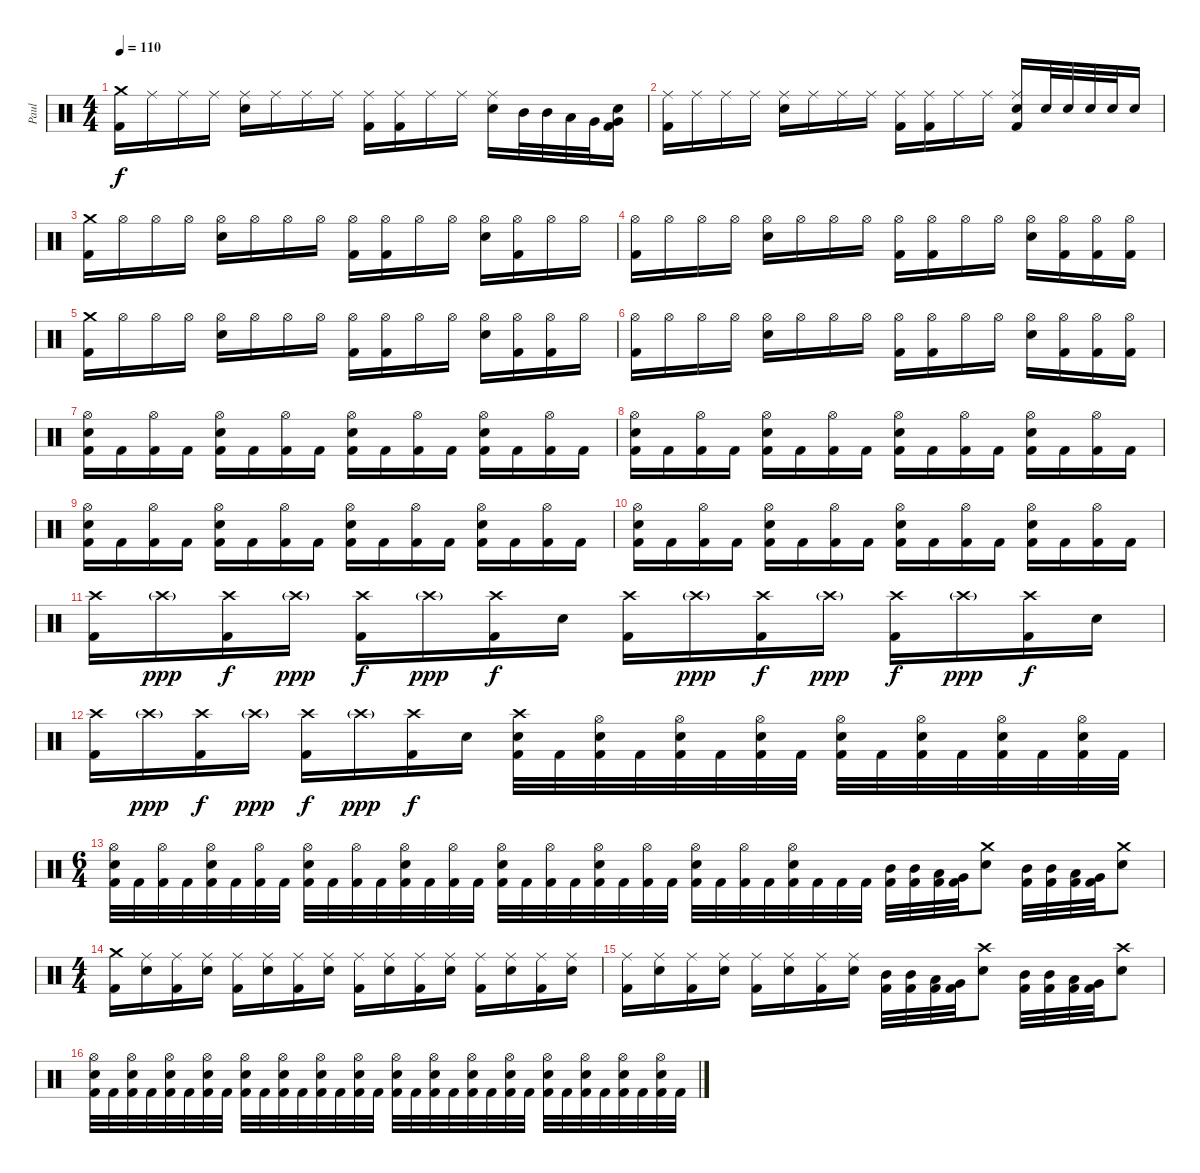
\track ("Paul" "Paul") {solo instrument percussion}
\staff {score}
\articulation defaults
\ts (4 4)
\tempo 110
\clef neutral
\ks c
("Crash medium (hit)" "Kick (hit) 2").16{dy f} "Ride (middle)".16 "Ride (middle)".16 "Ride (middle)".16 ("Ride (middle)" "Electric Snare (hit)").16 "Ride (middle)".16 "Ride (middle)".16 "Ride (middle)".16 ("Ride (middle)" "Kick (hit) 2").16 ("Ride (middle)" "Kick (hit) 2").16 "Ride (middle)".16 "Ride (middle)".16 ("Ride (middle)" "Electric Snare (hit)").16 "Mid Tom (hit)".32 "Mid Tom (hit)".32 "Low Tom (hit)".32 "Very Low Tom (hit)".32 ("Very Low Tom (hit)" "Electric Snare (hit)" "Kick (hit) 2").16 |
("Ride (middle)" "Kick (hit) 2").16 "Ride (middle)".16 "Ride (middle)".16 "Ride (middle)".16 ("Ride (middle)" "Electric Snare (hit)").16 "Ride (middle)".16 "Ride (middle)".16 "Ride (middle)".16 ("Ride (middle)" "Kick (hit) 2").16 ("Ride (middle)" "Kick (hit) 2").16 "Ride (middle)".16 "Ride (middle)".16 ("Ride (middle)" "Electric Snare (hit)" "Kick (hit) 2").16 "Electric Snare (hit)".32 "Electric Snare (hit)".32 "Electric Snare (hit)".32 "Electric Snare (hit)".32 "Electric Snare (hit)".16 |
("Crash medium (hit)" "Kick (hit) 2").16 "Hi-Hat (open)".16 "Hi-Hat (open)".16 "Hi-Hat (open)".16 ("Hi-Hat (open)" "Electric Snare (hit)").16 "Hi-Hat (open)".16 "Hi-Hat (open)".16 "Hi-Hat (open)".16 ("Hi-Hat (open)" "Kick (hit) 2").16 ("Hi-Hat (open)" "Kick (hit) 2").16 "Hi-Hat (open)".16 "Hi-Hat (open)".16 ("Hi-Hat (open)" "Electric Snare (hit)").16 ("Hi-Hat (open)" "Kick (hit) 2").16 "Hi-Hat (open)".16 "Hi-Hat (open)".16 |
("Hi-Hat (open)" "Kick (hit) 2").16 "Hi-Hat (open)".16 "Hi-Hat (open)".16 "Hi-Hat (open)".16 ("Hi-Hat (open)" "Electric Snare (hit)").16 "Hi-Hat (open)".16 "Hi-Hat (open)".16 "Hi-Hat (open)".16 ("Hi-Hat (open)" "Kick (hit) 2").16 ("Hi-Hat (open)" "Kick (hit) 2").16 "Hi-Hat (open)".16 "Hi-Hat (open)".16 ("Hi-Hat (open)" "Electric Snare (hit)").16 ("Hi-Hat (open)" "Kick (hit) 2").16 ("Hi-Hat (open)" "Kick (hit) 2").16 ("Hi-Hat (open)" "Kick (hit) 2").16 |
("Crash medium (hit)" "Kick (hit) 2").16 "Hi-Hat (open)".16 "Hi-Hat (open)".16 "Hi-Hat (open)".16 ("Hi-Hat (open)" "Electric Snare (hit)").16 "Hi-Hat (open)".16 "Hi-Hat (open)".16 "Hi-Hat (open)".16 ("Hi-Hat (open)" "Kick (hit) 2").16 ("Hi-Hat (open)" "Kick (hit) 2").16 "Hi-Hat (open)".16 "Hi-Hat (open)".16 ("Hi-Hat (open)" "Electric Snare (hit)").16 ("Hi-Hat (open)" "Kick (hit) 2").16 ("Hi-Hat (open)" "Kick (hit) 2").16 "Hi-Hat (open)".16 |
("Hi-Hat (open)" "Kick (hit) 2").16 "Hi-Hat (open)".16 "Hi-Hat (open)".16 "Hi-Hat (open)".16 ("Hi-Hat (open)" "Electric Snare (hit)").16 "Hi-Hat (open)".16 "Hi-Hat (open)".16 "Hi-Hat (open)".16 ("Hi-Hat (open)" "Kick (hit) 2").16 ("Hi-Hat (open)" "Kick (hit) 2").16 "Hi-Hat (open)".16 "Hi-Hat (open)".16 ("Hi-Hat (open)" "Electric Snare (hit)").16 ("Hi-Hat (open)" "Kick (hit) 2").16 ("Hi-Hat (open)" "Kick (hit) 2").16 ("Hi-Hat (open)" "Kick (hit) 2").16 |
("Hi-Hat (open)" "Electric Snare (hit)" "Kick (hit) 2").16 "Kick (hit) 2".16 ("Hi-Hat (open)" "Kick (hit) 2").16 "Kick (hit) 2".16 ("Hi-Hat (open)" "Electric Snare (hit)" "Kick (hit) 2").16 "Kick (hit) 2".16 ("Hi-Hat (open)" "Kick (hit) 2").16 "Kick (hit) 2".16 ("Hi-Hat (open)" "Electric Snare (hit)" "Kick (hit) 2").16 "Kick (hit) 2".16 ("Hi-Hat (open)" "Kick (hit) 2").16 "Kick (hit) 2".16 ("Hi-Hat (open)" "Electric Snare (hit)" "Kick (hit) 2").16 "Kick (hit) 2".16 ("Hi-Hat (open)" "Kick (hit) 2").16 "Kick (hit) 2".16 |
("Hi-Hat (open)" "Electric Snare (hit)" "Kick (hit) 2").16 "Kick (hit) 2".16 ("Hi-Hat (open)" "Kick (hit) 2").16 "Kick (hit) 2".16 ("Hi-Hat (open)" "Electric Snare (hit)" "Kick (hit) 2").16 "Kick (hit) 2".16 ("Hi-Hat (open)" "Kick (hit) 2").16 "Kick (hit) 2".16 ("Hi-Hat (open)" "Electric Snare (hit)" "Kick (hit) 2").16 "Kick (hit) 2".16 ("Hi-Hat (open)" "Kick (hit) 2").16 "Kick (hit) 2".16 ("Hi-Hat (open)" "Electric Snare (hit)" "Kick (hit) 2").16 "Kick (hit) 2".16 ("Hi-Hat (open)" "Kick (hit) 2").16 "Kick (hit) 2".16 |
("Hi-Hat (open)" "Electric Snare (hit)" "Kick (hit) 2").16 "Kick (hit) 2".16 ("Hi-Hat (open)" "Kick (hit) 2").16 "Kick (hit) 2".16 ("Hi-Hat (open)" "Electric Snare (hit)" "Kick (hit) 2").16 "Kick (hit) 2".16 ("Hi-Hat (open)" "Kick (hit) 2").16 "Kick (hit) 2".16 ("Hi-Hat (open)" "Electric Snare (hit)" "Kick (hit) 2").16 "Kick (hit) 2".16 ("Hi-Hat (open)" "Kick (hit) 2").16 "Kick (hit) 2".16 ("Hi-Hat (open)" "Electric Snare (hit)" "Kick (hit) 2").16 "Kick (hit) 2".16 ("Hi-Hat (open)" "Kick (hit) 2").16 "Kick (hit) 2".16 |
("Hi-Hat (open)" "Electric Snare (hit)" "Kick (hit) 2").16 "Kick (hit) 2".16 ("Hi-Hat (open)" "Kick (hit) 2").16 "Kick (hit) 2".16 ("Hi-Hat (open)" "Electric Snare (hit)" "Kick (hit) 2").16 "Kick (hit) 2".16 ("Hi-Hat (open)" "Kick (hit) 2").16 "Kick (hit) 2".16 ("Hi-Hat (open)" "Electric Snare (hit)" "Kick (hit) 2").16 "Kick (hit) 2".16 ("Hi-Hat (open)" "Kick (hit) 2").16 "Kick (hit) 2".16 ("Hi-Hat (open)" "Electric Snare (hit)" "Kick (hit) 2").16 "Kick (hit) 2".16 ("Hi-Hat (open)" "Kick (hit) 2").16 "Kick (hit) 2".16 |
("Crash high (hit)" "Kick (hit) 2").16 "Crash high (hit)"{g}.16{dy ppp} ("Crash high (hit)" "Kick (hit) 2").16{dy f} "Crash high (hit)"{g}.16{dy ppp} ("Crash high (hit)" "Kick (hit) 2").16{dy f} "Crash high (hit)"{g}.16{dy ppp} ("Crash high (hit)" "Kick (hit) 2").16{dy f} "Electric Snare (hit)".16 ("Crash high (hit)" "Kick (hit) 2").16 "Crash high (hit)"{g}.16{dy ppp} ("Crash high (hit)" "Kick (hit) 2").16{dy f} "Crash high (hit)"{g}.16{dy ppp} ("Crash high (hit)" "Kick (hit) 2").16{dy f} "Crash high (hit)"{g}.16{dy ppp} ("Crash high (hit)" "Kick (hit) 2").16{dy f} "Electric Snare (hit)".16 |
("Crash high (hit)" "Kick (hit) 2").16 "Crash high (hit)"{g}.16{dy ppp} ("Crash high (hit)" "Kick (hit) 2").16{dy f} "Crash high (hit)"{g}.16{dy ppp} ("Crash high (hit)" "Kick (hit) 2").16{dy f} "Crash high (hit)"{g}.16{dy ppp} ("Crash high (hit)" "Kick (hit) 2").16{dy f} "Electric Snare (hit)".16 ("Crash high (hit)" "Electric Snare (hit)" "Kick (hit) 2").32 "Kick (hit) 2".32 ("Hi-Hat (open)" "Electric Snare (hit)" "Kick (hit) 2").32 "Kick (hit) 2".32 ("Hi-Hat (open)" "Electric Snare (hit)" "Kick (hit) 2").32 "Kick (hit) 2".32 ("Hi-Hat (open)" "Electric Snare (hit)" "Kick (hit) 2").32 "Kick (hit) 2".32 ("Hi-Hat (open)" "Electric Snare (hit)" "Kick (hit) 2").32 "Kick (hit) 2".32 ("Hi-Hat (open)" "Electric Snare (hit)" "Kick (hit) 2").32 "Kick (hit) 2".32 ("Hi-Hat (open)" "Electric Snare (hit)" "Kick (hit) 2").32 "Kick (hit) 2".32 ("Hi-Hat (open)" "Electric Snare (hit)" "Kick (hit) 2").32 "Kick (hit) 2".32 |
\ts (6 4)
("Hi-Hat (open)" "Electric Snare (hit)" "Kick (hit) 2").32 "Kick (hit) 2".32 ("Hi-Hat (open)" "Kick (hit) 2").32 "Kick (hit) 2".32 ("Hi-Hat (open)" "Electric Snare (hit)" "Kick (hit) 2").32 "Kick (hit) 2".32 ("Hi-Hat (open)" "Kick (hit) 2").32 "Kick (hit) 2".32 ("Hi-Hat (open)" "Electric Snare (hit)" "Kick (hit) 2").32 "Kick (hit) 2".32 ("Hi-Hat (open)" "Kick (hit) 2").32 "Kick (hit) 2".32 ("Hi-Hat (open)" "Electric Snare (hit)" "Kick (hit) 2").32 "Kick (hit) 2".32 ("Hi-Hat (open)" "Kick (hit) 2").32 "Kick (hit) 2".32 ("Hi-Hat (open)" "Electric Snare (hit)" "Kick (hit) 2").32 "Kick (hit) 2".32 ("Hi-Hat (open)" "Kick (hit) 2").32 "Kick (hit) 2".32 ("Hi-Hat (open)" "Electric Snare (hit)" "Kick (hit) 2").32 "Kick (hit) 2".32 ("Hi-Hat (open)" "Kick (hit) 2").32 "Kick (hit) 2".32 ("Hi-Hat (open)" "Electric Snare (hit)" "Kick (hit) 2").32 "Kick (hit) 2".32 ("Hi-Hat (open)" "Kick (hit) 2").32 "Kick (hit) 2".32 ("Hi-Hat (open)" "Electric Snare (hit)" "Kick (hit) 2").32 "Kick (hit) 2".32 "Kick (hit) 2".32 "Kick (hit) 2".32 ("Mid Tom (hit)" "Kick (hit) 2").32 ("Mid Tom (hit)" "Kick (hit) 2").32 ("Low Tom (hit)" "Kick (hit) 2").32 ("Very Low Tom (hit)" "Kick (hit) 2").32 ("Crash medium (hit)" "Electric Snare (hit)").8 ("Mid Tom (hit)" "Kick (hit) 2").32 ("Mid Tom (hit)" "Kick (hit) 2").32 ("Low Tom (hit)" "Kick (hit) 2").32 ("Very Low Tom (hit)" "Kick (hit) 2").32 ("Crash medium (hit)" "Electric Snare (hit)").8 |
\ts (4 4)
("Crash medium (hit)" "Kick (hit) 2").16 ("Ride (middle)" "Electric Snare (hit)").16 ("Ride (middle)" "Kick (hit) 2").16 ("Ride (middle)" "Electric Snare (hit)").16 ("Ride (middle)" "Kick (hit) 2").16 ("Ride (middle)" "Electric Snare (hit)").16 ("Ride (middle)" "Kick (hit) 2").16 ("Ride (middle)" "Electric Snare (hit)").16 ("Ride (middle)" "Kick (hit) 2").16 ("Ride (middle)" "Electric Snare (hit)").16 ("Ride (middle)" "Kick (hit) 2").16 ("Ride (middle)" "Electric Snare (hit)").16 ("Ride (middle)" "Kick (hit) 2").16 ("Ride (middle)" "Electric Snare (hit)").16 ("Ride (middle)" "Kick (hit) 2").16 ("Ride (middle)" "Electric Snare (hit)").16 |
("Ride (middle)" "Kick (hit) 2").16 ("Ride (middle)" "Electric Snare (hit)").16 ("Ride (middle)" "Kick (hit) 2").16 ("Ride (middle)" "Electric Snare (hit)").16 ("Ride (middle)" "Kick (hit) 2").16 ("Ride (middle)" "Electric Snare (hit)").16 ("Ride (middle)" "Kick (hit) 2").16 ("Ride (middle)" "Electric Snare (hit)").16 ("Mid Tom (hit)" "Kick (hit) 2").32 ("Mid Tom (hit)" "Kick (hit) 2").32 ("Low Tom (hit)" "Kick (hit) 2").32 ("Very Low Tom (hit)" "Kick (hit) 2").32 ("Crash high (hit)" "Electric Snare (hit)").8 ("Mid Tom (hit)" "Kick (hit) 2").32 ("Mid Tom (hit)" "Kick (hit) 2").32 ("Low Tom (hit)" "Kick (hit) 2").32 ("Very Low Tom (hit)" "Kick (hit) 2").32 ("Crash high (hit)" "Electric Snare (hit)").8 |
("Hi-Hat (open)" "Electric Snare (hit)" "Kick (hit) 2").32 "Kick (hit) 2".32 ("Hi-Hat (open)" "Electric Snare (hit)" "Kick (hit) 2").32 "Kick (hit) 2".32 ("Hi-Hat (open)" "Electric Snare (hit)" "Kick (hit) 2").32 "Kick (hit) 2".32 ("Hi-Hat (open)" "Electric Snare (hit)" "Kick (hit) 2").32 "Kick (hit) 2".32 ("Hi-Hat (open)" "Electric Snare (hit)" "Kick (hit) 2").32 "Kick (hit) 2".32 ("Hi-Hat (open)" "Electric Snare (hit)" "Kick (hit) 2").32 "Kick (hit) 2".32 ("Hi-Hat (open)" "Electric Snare (hit)" "Kick (hit) 2").32 "Kick (hit) 2".32 ("Hi-Hat (open)" "Electric Snare (hit)" "Kick (hit) 2").32 "Kick (hit) 2".32 ("Hi-Hat (open)" "Electric Snare (hit)" "Kick (hit) 2").32 "Kick (hit) 2".32 ("Hi-Hat (open)" "Electric Snare (hit)" "Kick (hit) 2").32 "Kick (hit) 2".32 ("Hi-Hat (open)" "Electric Snare (hit)" "Kick (hit) 2").32 "Kick (hit) 2".32 ("Hi-Hat (open)" "Electric Snare (hit)" "Kick (hit) 2").32 "Kick (hit) 2".32 ("Hi-Hat (open)" "Electric Snare (hit)" "Kick (hit) 2").32 "Kick (hit) 2".32 ("Hi-Hat (open)" "Electric Snare (hit)" "Kick (hit) 2").32 "Kick (hit) 2".32 ("Hi-Hat (open)" "Electric Snare (hit)" "Kick (hit) 2").32 "Kick (hit) 2".32 ("Hi-Hat (open)" "Electric Snare (hit)" "Kick (hit) 2").32 "Kick (hit) 2".32
